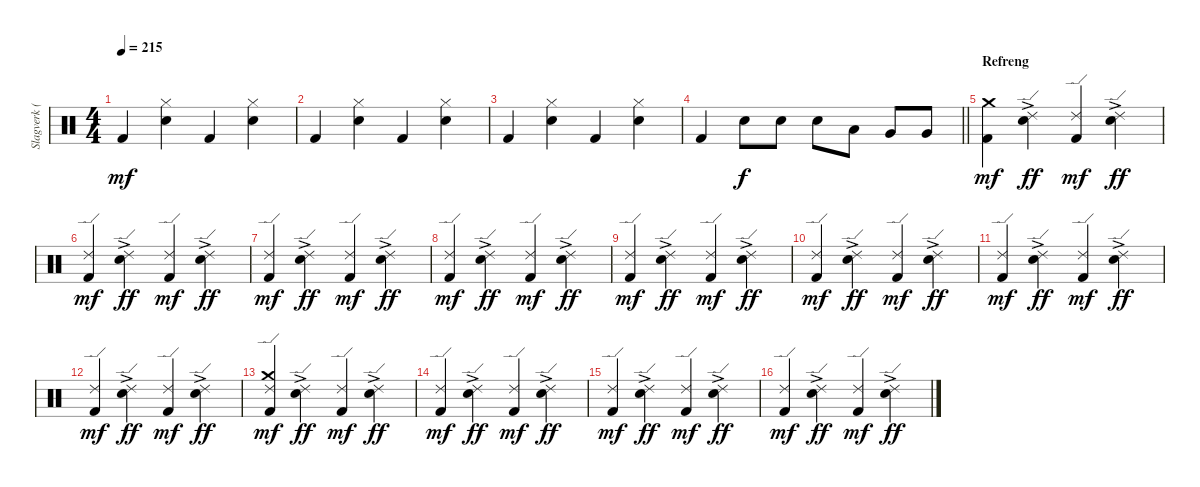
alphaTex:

\track ("Slagverk (Jan Kristiansen)" "Slagverk (") {instrument percussion}
\staff {score}
\articulation defaults
\ts (4 4)
\tempo 215
\clef neutral
\ks c "Kick (hit) 2".4{dy mf}
("Hi-Hat (closed)" "Snare (hit) 2").4 "Kick (hit) 2".4 ("Hi-Hat (closed)" "Snare (hit) 2").4 |
"Kick (hit) 2".4 ("Hi-Hat (closed)" "Snare (hit) 2").4 "Kick (hit) 2".4 ("Hi-Hat (closed)" "Snare (hit) 2").4 |
"Kick (hit) 2".4 ("Hi-Hat (closed)" "Snare (hit) 2").4 "Kick (hit) 2".4 ("Hi-Hat (closed)" "Snare (hit) 2").4 |
\barLineRight lightlight "Kick (hit) 2".4 "Snare (hit) 2".8{dy f} "Snare (hit) 2".8 "Snare (hit) 2".8 "Low Tom (hit)".8 "Very Low Tom (hit)".8 "Very Low Tom (hit)".8
|
\section ("" "Refreng")
("Crash medium (hit)" "Kick (hit) 2").4{dy mf} ("Ride (edge) 2"{ac} "Snare (hit) 2").4{dy ff} ("Ride (edge) 2" "Kick (hit) 2").4{dy mf} ("Ride (edge) 2"{ac} "Snare (hit) 2").4{dy ff} |
("Ride (edge) 2" "Kick (hit) 2").4{dy mf} ("Ride (edge) 2"{ac} "Snare (hit) 2").4{dy ff} ("Ride (edge) 2" "Kick (hit) 2").4{dy mf} ("Ride (edge) 2"{ac} "Snare (hit) 2").4{dy ff} |
("Ride (edge) 2" "Kick (hit) 2").4{dy mf} ("Ride (edge) 2"{ac} "Snare (hit) 2").4{dy ff} ("Ride (edge) 2" "Kick (hit) 2").4{dy mf} ("Ride (edge) 2"{ac} "Snare (hit) 2").4{dy ff} |
("Ride (edge) 2" "Kick (hit) 2").4{dy mf} ("Ride (edge) 2"{ac} "Snare (hit) 2").4{dy ff} ("Ride (edge) 2" "Kick (hit) 2").4{dy mf} ("Ride (edge) 2"{ac} "Snare (hit) 2").4{dy ff} |
("Ride (edge) 2" "Kick (hit) 2").4{dy mf} ("Ride (edge) 2"{ac} "Snare (hit) 2").4{dy ff} ("Ride (edge) 2" "Kick (hit) 2").4{dy mf} ("Ride (edge) 2"{ac} "Snare (hit) 2").4{dy ff} |
("Ride (edge) 2" "Kick (hit) 2").4{dy mf} ("Ride (edge) 2"{ac} "Snare (hit) 2").4{dy ff} ("Ride (edge) 2" "Kick (hit) 2").4{dy mf} ("Ride (edge) 2"{ac} "Snare (hit) 2").4{dy ff} |
("Ride (edge) 2" "Kick (hit) 2").4{dy mf} ("Ride (edge) 2"{ac} "Snare (hit) 2").4{dy ff} ("Ride (edge) 2" "Kick (hit) 2").4{dy mf} ("Ride (edge) 2"{ac} "Snare (hit) 2").4{dy ff} |
("Ride (edge) 2" "Kick (hit) 2").4{dy mf} ("Ride (edge) 2"{ac} "Snare (hit) 2").4{dy ff} ("Ride (edge) 2" "Kick (hit) 2").4{dy mf} ("Ride (edge) 2"{ac} "Snare (hit) 2").4{dy ff} |
("Crash medium (hit)" "Ride (edge) 2" "Kick (hit) 2").4{dy mf} ("Ride (edge) 2"{ac} "Snare (hit) 2").4{dy ff} ("Ride (edge) 2" "Kick (hit) 2").4{dy mf} ("Ride (edge) 2"{ac} "Snare (hit) 2").4{dy ff} |
("Ride (edge) 2" "Kick (hit) 2").4{dy mf} ("Ride (edge) 2"{ac} "Snare (hit) 2").4{dy ff} ("Ride (edge) 2" "Kick (hit) 2").4{dy mf} ("Ride (edge) 2"{ac} "Snare (hit) 2").4{dy ff} |
("Ride (edge) 2" "Kick (hit) 2").4{dy mf} ("Ride (edge) 2"{ac} "Snare (hit) 2").4{dy ff} ("Ride (edge) 2" "Kick (hit) 2").4{dy mf} ("Ride (edge) 2"{ac} "Snare (hit) 2").4{dy ff} |
("Ride (edge) 2" "Kick (hit) 2").4{dy mf} ("Ride (edge) 2"{ac} "Snare (hit) 2").4{dy ff} ("Ride (edge) 2" "Kick (hit) 2").4{dy mf} ("Ride (edge) 2"{ac} "Snare (hit) 2").4{dy ff}
